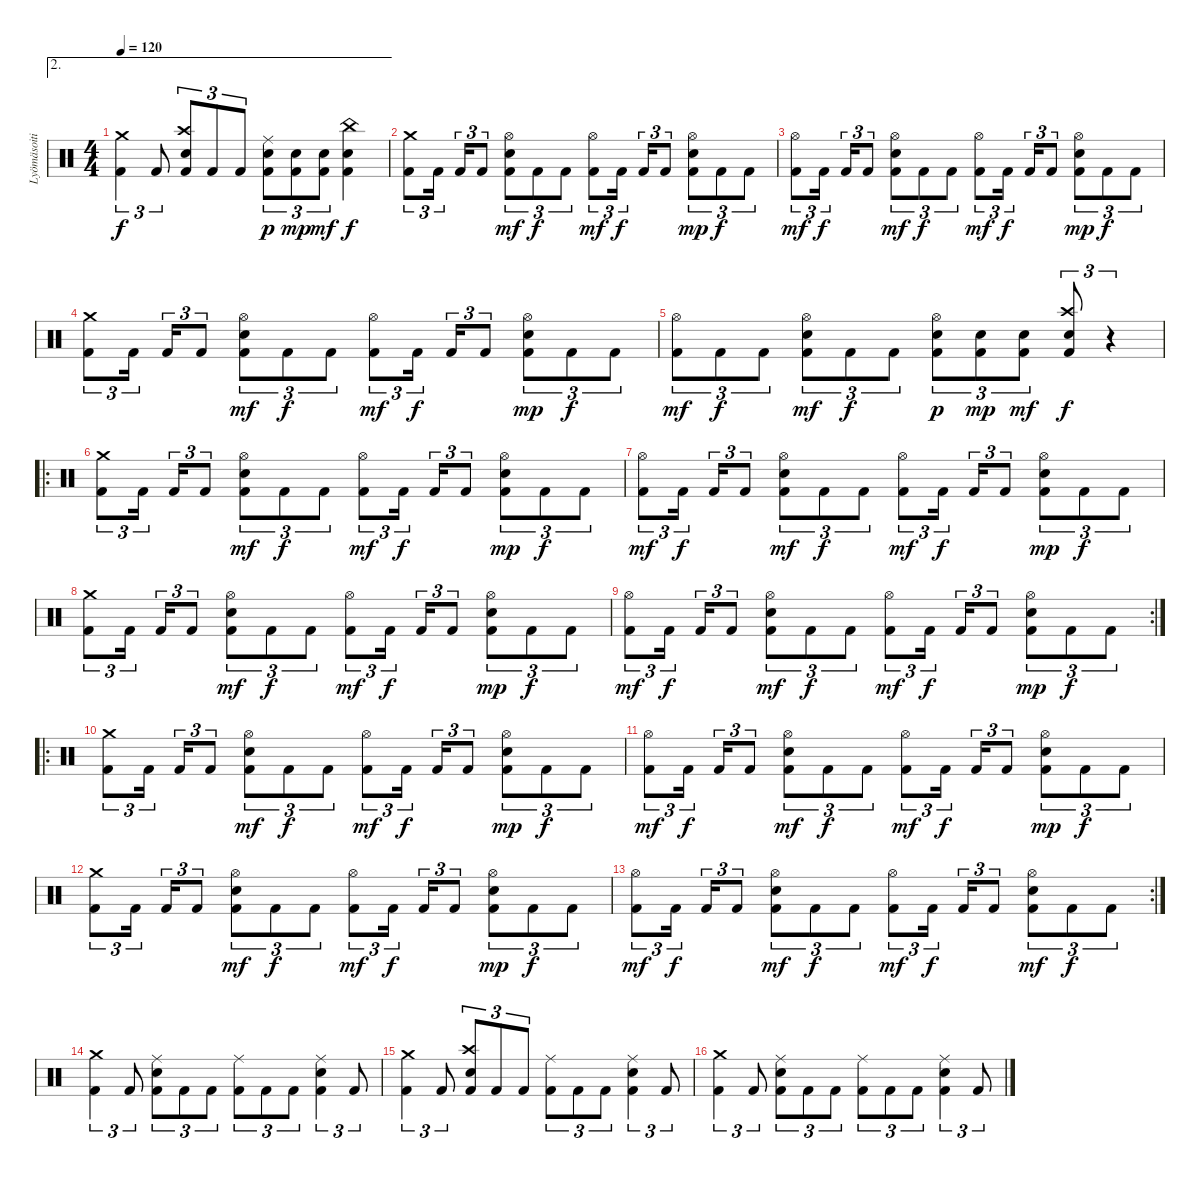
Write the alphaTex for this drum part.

\track ("Lyömäsoitin" "Lyömäsoiti") {instrument percussion}
\staff {score}
\articulation defaults
\ae 2
\ts (4 4)
\tempo 120
\clef neutral
\ks c
("Crash medium (hit)" "Kick (hit) 2").4{tu (3 2) dy f} "Kick (hit) 2".8{tu (3 2)} ("Crash high (hit)" "Snare (hit) 2" "Kick (hit) 2").8{tu (3 2)} "Kick (hit) 2".8{tu (3 2)} "Kick (hit) 2".8{tu (3 2)} ("Ride (middle)" "Snare (hit) 2" "Kick (hit) 2").8{tu (3 2) dy p} ("Snare (hit) 2" "Kick (hit) 2").8{tu (3 2) dy mp} ("Snare (hit) 2" "Kick (hit) 2").8{tu (3 2) dy mf} ("China (hit)" "Snare (hit) 2" "Kick (hit) 2").4{dy f} |
("Crash medium (hit)" "Kick (hit) 2").8{tu (3 2)} "Kick (hit) 2".16{tu (3 2)} "Kick (hit) 2".16{tu (3 2)} "Kick (hit) 2".8{tu (3 2)} ("Hi-Hat (open)" "Snare (hit) 2" "Kick (hit) 2").8{tu (3 2) dy mf} "Kick (hit) 2".8{tu (3 2) dy f} "Kick (hit) 2".8{tu (3 2)} ("Hi-Hat (open)" "Kick (hit) 2").8{tu (3 2) dy mf} "Kick (hit) 2".16{tu (3 2) dy f} "Kick (hit) 2".16{tu (3 2)} "Kick (hit) 2".8{tu (3 2)} ("Hi-Hat (open)" "Snare (hit) 2" "Kick (hit) 2").8{tu (3 2) dy mp} "Kick (hit) 2".8{tu (3 2) dy f} "Kick (hit) 2".8{tu (3 2)} |
("Hi-Hat (open)" "Kick (hit) 2").8{tu (3 2) dy mf} "Kick (hit) 2".16{tu (3 2) dy f} "Kick (hit) 2".16{tu (3 2)} "Kick (hit) 2".8{tu (3 2)} ("Hi-Hat (open)" "Snare (hit) 2" "Kick (hit) 2").8{tu (3 2) dy mf} "Kick (hit) 2".8{tu (3 2) dy f} "Kick (hit) 2".8{tu (3 2)} ("Hi-Hat (open)" "Kick (hit) 2").8{tu (3 2) dy mf} "Kick (hit) 2".16{tu (3 2) dy f} "Kick (hit) 2".16{tu (3 2)} "Kick (hit) 2".8{tu (3 2)} ("Hi-Hat (open)" "Snare (hit) 2" "Kick (hit) 2").8{tu (3 2) dy mp} "Kick (hit) 2".8{tu (3 2) dy f} "Kick (hit) 2".8{tu (3 2)} |
("Crash medium (hit)" "Kick (hit) 2").8{tu (3 2)} "Kick (hit) 2".16{tu (3 2)} "Kick (hit) 2".16{tu (3 2)} "Kick (hit) 2".8{tu (3 2)} ("Hi-Hat (open)" "Snare (hit) 2" "Kick (hit) 2").8{tu (3 2) dy mf} "Kick (hit) 2".8{tu (3 2) dy f} "Kick (hit) 2".8{tu (3 2)} ("Hi-Hat (open)" "Kick (hit) 2").8{tu (3 2) dy mf} "Kick (hit) 2".16{tu (3 2) dy f} "Kick (hit) 2".16{tu (3 2)} "Kick (hit) 2".8{tu (3 2)} ("Hi-Hat (open)" "Snare (hit) 2" "Kick (hit) 2").8{tu (3 2) dy mp} "Kick (hit) 2".8{tu (3 2) dy f} "Kick (hit) 2".8{tu (3 2)} |
("Hi-Hat (open)" "Kick (hit) 2").8{tu (3 2) dy mf} "Kick (hit) 2".8{tu (3 2) dy f} "Kick (hit) 2".8{tu (3 2)} ("Hi-Hat (open)" "Snare (hit) 2" "Kick (hit) 2").8{tu (3 2) dy mf} "Kick (hit) 2".8{tu (3 2) dy f} "Kick (hit) 2".8{tu (3 2)} ("Hi-Hat (open)" "Snare (hit) 2" "Kick (hit) 2").8{tu (3 2) dy p} ("Snare (hit) 2" "Kick (hit) 2").8{tu (3 2) dy mp} ("Snare (hit) 2" "Kick (hit) 2").8{tu (3 2) dy mf} ("Crash high (hit)" "Snare (hit) 2" "Kick (hit) 2").8{tu (3 2) dy f} r.4{tu (3 2)} |
\ro
("Crash medium (hit)" "Kick (hit) 2").8{tu (3 2)} "Kick (hit) 2".16{tu (3 2)} "Kick (hit) 2".16{tu (3 2)} "Kick (hit) 2".8{tu (3 2)} ("Hi-Hat (open)" "Snare (hit) 2" "Kick (hit) 2").8{tu (3 2) dy mf} "Kick (hit) 2".8{tu (3 2) dy f} "Kick (hit) 2".8{tu (3 2)} ("Hi-Hat (open)" "Kick (hit) 2").8{tu (3 2) dy mf} "Kick (hit) 2".16{tu (3 2) dy f} "Kick (hit) 2".16{tu (3 2)} "Kick (hit) 2".8{tu (3 2)} ("Hi-Hat (open)" "Snare (hit) 2" "Kick (hit) 2").8{tu (3 2) dy mp} "Kick (hit) 2".8{tu (3 2) dy f} "Kick (hit) 2".8{tu (3 2)} |
("Hi-Hat (open)" "Kick (hit) 2").8{tu (3 2) dy mf} "Kick (hit) 2".16{tu (3 2) dy f} "Kick (hit) 2".16{tu (3 2)} "Kick (hit) 2".8{tu (3 2)} ("Hi-Hat (open)" "Snare (hit) 2" "Kick (hit) 2").8{tu (3 2) dy mf} "Kick (hit) 2".8{tu (3 2) dy f} "Kick (hit) 2".8{tu (3 2)} ("Hi-Hat (open)" "Kick (hit) 2").8{tu (3 2) dy mf} "Kick (hit) 2".16{tu (3 2) dy f} "Kick (hit) 2".16{tu (3 2)} "Kick (hit) 2".8{tu (3 2)} ("Hi-Hat (open)" "Snare (hit) 2" "Kick (hit) 2").8{tu (3 2) dy mp} "Kick (hit) 2".8{tu (3 2) dy f} "Kick (hit) 2".8{tu (3 2)} |
("Crash medium (hit)" "Kick (hit) 2").8{tu (3 2)} "Kick (hit) 2".16{tu (3 2)} "Kick (hit) 2".16{tu (3 2)} "Kick (hit) 2".8{tu (3 2)} ("Hi-Hat (open)" "Snare (hit) 2" "Kick (hit) 2").8{tu (3 2) dy mf} "Kick (hit) 2".8{tu (3 2) dy f} "Kick (hit) 2".8{tu (3 2)} ("Hi-Hat (open)" "Kick (hit) 2").8{tu (3 2) dy mf} "Kick (hit) 2".16{tu (3 2) dy f} "Kick (hit) 2".16{tu (3 2)} "Kick (hit) 2".8{tu (3 2)} ("Hi-Hat (open)" "Snare (hit) 2" "Kick (hit) 2").8{tu (3 2) dy mp} "Kick (hit) 2".8{tu (3 2) dy f} "Kick (hit) 2".8{tu (3 2)} |
\rc 2
("Hi-Hat (open)" "Kick (hit) 2").8{tu (3 2) dy mf} "Kick (hit) 2".16{tu (3 2) dy f} "Kick (hit) 2".16{tu (3 2)} "Kick (hit) 2".8{tu (3 2)} ("Hi-Hat (open)" "Snare (hit) 2" "Kick (hit) 2").8{tu (3 2) dy mf} "Kick (hit) 2".8{tu (3 2) dy f} "Kick (hit) 2".8{tu (3 2)} ("Hi-Hat (open)" "Kick (hit) 2").8{tu (3 2) dy mf} "Kick (hit) 2".16{tu (3 2) dy f} "Kick (hit) 2".16{tu (3 2)} "Kick (hit) 2".8{tu (3 2)} ("Hi-Hat (open)" "Snare (hit) 2" "Kick (hit) 2").8{tu (3 2) dy mp} "Kick (hit) 2".8{tu (3 2) dy f} "Kick (hit) 2".8{tu (3 2)} |
\ro
("Crash medium (hit)" "Kick (hit) 2").8{tu (3 2)} "Kick (hit) 2".16{tu (3 2)} "Kick (hit) 2".16{tu (3 2)} "Kick (hit) 2".8{tu (3 2)} ("Hi-Hat (open)" "Snare (hit) 2" "Kick (hit) 2").8{tu (3 2) dy mf} "Kick (hit) 2".8{tu (3 2) dy f} "Kick (hit) 2".8{tu (3 2)} ("Hi-Hat (open)" "Kick (hit) 2").8{tu (3 2) dy mf} "Kick (hit) 2".16{tu (3 2) dy f} "Kick (hit) 2".16{tu (3 2)} "Kick (hit) 2".8{tu (3 2)} ("Hi-Hat (open)" "Snare (hit) 2" "Kick (hit) 2").8{tu (3 2) dy mp} "Kick (hit) 2".8{tu (3 2) dy f} "Kick (hit) 2".8{tu (3 2)} |
("Hi-Hat (open)" "Kick (hit) 2").8{tu (3 2) dy mf} "Kick (hit) 2".16{tu (3 2) dy f} "Kick (hit) 2".16{tu (3 2)} "Kick (hit) 2".8{tu (3 2)} ("Hi-Hat (open)" "Snare (hit) 2" "Kick (hit) 2").8{tu (3 2) dy mf} "Kick (hit) 2".8{tu (3 2) dy f} "Kick (hit) 2".8{tu (3 2)} ("Hi-Hat (open)" "Kick (hit) 2").8{tu (3 2) dy mf} "Kick (hit) 2".16{tu (3 2) dy f} "Kick (hit) 2".16{tu (3 2)} "Kick (hit) 2".8{tu (3 2)} ("Hi-Hat (open)" "Snare (hit) 2" "Kick (hit) 2").8{tu (3 2) dy mp} "Kick (hit) 2".8{tu (3 2) dy f} "Kick (hit) 2".8{tu (3 2)} |
("Crash medium (hit)" "Kick (hit) 2").8{tu (3 2)} "Kick (hit) 2".16{tu (3 2)} "Kick (hit) 2".16{tu (3 2)} "Kick (hit) 2".8{tu (3 2)} ("Hi-Hat (open)" "Snare (hit) 2" "Kick (hit) 2").8{tu (3 2) dy mf} "Kick (hit) 2".8{tu (3 2) dy f} "Kick (hit) 2".8{tu (3 2)} ("Hi-Hat (open)" "Kick (hit) 2").8{tu (3 2) dy mf} "Kick (hit) 2".16{tu (3 2) dy f} "Kick (hit) 2".16{tu (3 2)} "Kick (hit) 2".8{tu (3 2)} ("Hi-Hat (open)" "Snare (hit) 2" "Kick (hit) 2").8{tu (3 2) dy mp} "Kick (hit) 2".8{tu (3 2) dy f} "Kick (hit) 2".8{tu (3 2)} |
\rc 2
("Hi-Hat (open)" "Kick (hit) 2").8{tu (3 2) dy mf} "Kick (hit) 2".16{tu (3 2) dy f} "Kick (hit) 2".16{tu (3 2)} "Kick (hit) 2".8{tu (3 2)} ("Hi-Hat (open)" "Snare (hit) 2" "Kick (hit) 2").8{tu (3 2) dy mf} "Kick (hit) 2".8{tu (3 2) dy f} "Kick (hit) 2".8{tu (3 2)} ("Hi-Hat (open)" "Kick (hit) 2").8{tu (3 2) dy mf} "Kick (hit) 2".16{tu (3 2) dy f} "Kick (hit) 2".16{tu (3 2)} "Kick (hit) 2".8{tu (3 2)} ("Hi-Hat (open)" "Snare (hit) 2" "Kick (hit) 2").8{tu (3 2) dy mf} "Kick (hit) 2".8{tu (3 2) dy f} "Kick (hit) 2".8{tu (3 2)} |
("Crash medium (hit)" "Kick (hit) 2").4{tu (3 2)} "Kick (hit) 2".8{tu (3 2)} ("Ride (middle)" "Snare (hit) 2" "Kick (hit) 2").8{tu (3 2)} "Kick (hit) 2".8{tu (3 2)} "Kick (hit) 2".8{tu (3 2)} ("Ride (middle)" "Kick (hit) 2").8{tu (3 2)} "Kick (hit) 2".8{tu (3 2)} "Kick (hit) 2".8{tu (3 2)} ("Ride (middle)" "Snare (hit) 2" "Kick (hit) 2").4{tu (3 2)} "Kick (hit) 2".8{tu (3 2)} |
("Crash medium (hit)" "Kick (hit) 2").4{tu (3 2)} "Kick (hit) 2".8{tu (3 2)} ("Crash high (hit)" "Snare (hit) 2" "Kick (hit) 2").8{tu (3 2)} "Kick (hit) 2".8{tu (3 2)} "Kick (hit) 2".8{tu (3 2)} ("Ride (middle)" "Kick (hit) 2").8{tu (3 2)} "Kick (hit) 2".8{tu (3 2)} "Kick (hit) 2".8{tu (3 2)} ("Ride (middle)" "Snare (hit) 2" "Kick (hit) 2").4{tu (3 2)} "Kick (hit) 2".8{tu (3 2)} |
("Crash medium (hit)" "Kick (hit) 2").4{tu (3 2)} "Kick (hit) 2".8{tu (3 2)} ("Ride (middle)" "Snare (hit) 2" "Kick (hit) 2").8{tu (3 2)} "Kick (hit) 2".8{tu (3 2)} "Kick (hit) 2".8{tu (3 2)} ("Ride (middle)" "Kick (hit) 2").8{tu (3 2)} "Kick (hit) 2".8{tu (3 2)} "Kick (hit) 2".8{tu (3 2)} ("Ride (middle)" "Snare (hit) 2" "Kick (hit) 2").4{tu (3 2)} "Kick (hit) 2".8{tu (3 2)}
